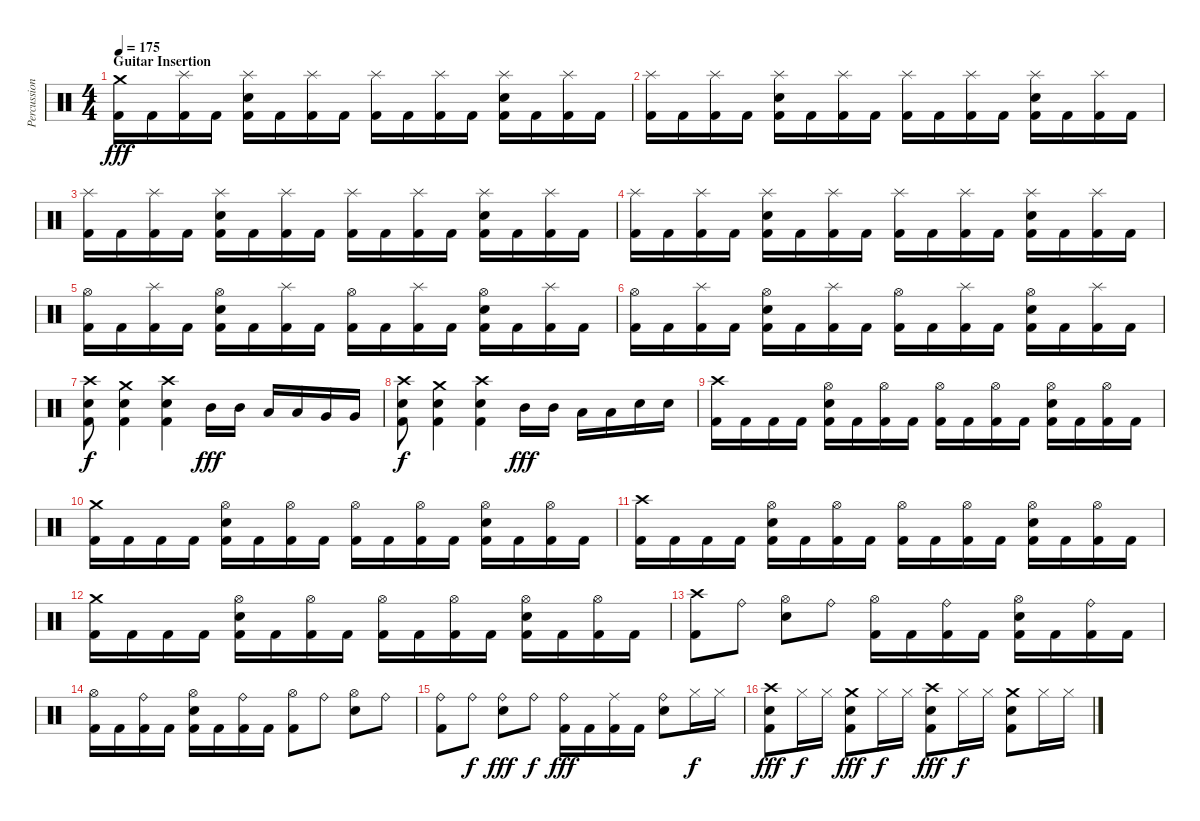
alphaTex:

\track ("Percussion" "Percussion") {instrument percussion}
\staff {score}
\articulation defaults
\ts (4 4)
\section ("" "Guitar Insertion")
\tempo 175
\clef neutral
\ks c
("Crash medium (hit)" "Kick (hit) 2").16{dy fff} "Kick (hit) 2".16 ("Splash (hit)" "Kick (hit) 2").16 "Kick (hit) 2".16 ("Splash (hit)" "Snare (hit) 2" "Kick (hit) 2").16 "Kick (hit) 2".16 ("Splash (hit)" "Kick (hit) 2").16 "Kick (hit) 2".16 ("Splash (hit)" "Kick (hit) 2").16 "Kick (hit) 2".16 ("Splash (hit)" "Kick (hit) 2").16 "Kick (hit) 2".16 ("Splash (hit)" "Snare (hit) 2" "Kick (hit) 2").16 "Kick (hit) 2".16 ("Splash (hit)" "Kick (hit) 2").16 "Kick (hit) 2".16 |
("Splash (hit)" "Kick (hit) 2").16 "Kick (hit) 2".16 ("Splash (hit)" "Kick (hit) 2").16 "Kick (hit) 2".16 ("Splash (hit)" "Snare (hit) 2" "Kick (hit) 2").16 "Kick (hit) 2".16 ("Splash (hit)" "Kick (hit) 2").16 "Kick (hit) 2".16 ("Splash (hit)" "Kick (hit) 2").16 "Kick (hit) 2".16 ("Splash (hit)" "Kick (hit) 2").16 "Kick (hit) 2".16 ("Splash (hit)" "Snare (hit) 2" "Kick (hit) 2").16 "Kick (hit) 2".16 ("Splash (hit)" "Kick (hit) 2").16 "Kick (hit) 2".16 |
("Splash (hit)" "Kick (hit) 2").16 "Kick (hit) 2".16 ("Splash (hit)" "Kick (hit) 2").16 "Kick (hit) 2".16 ("Splash (hit)" "Snare (hit) 2" "Kick (hit) 2").16 "Kick (hit) 2".16 ("Splash (hit)" "Kick (hit) 2").16 "Kick (hit) 2".16 ("Splash (hit)" "Kick (hit) 2").16 "Kick (hit) 2".16 ("Splash (hit)" "Kick (hit) 2").16 "Kick (hit) 2".16 ("Splash (hit)" "Snare (hit) 2" "Kick (hit) 2").16 "Kick (hit) 2".16 ("Splash (hit)" "Kick (hit) 2").16 "Kick (hit) 2".16 |
("Splash (hit)" "Kick (hit) 2").16 "Kick (hit) 2".16 ("Splash (hit)" "Kick (hit) 2").16 "Kick (hit) 2".16 ("Splash (hit)" "Snare (hit) 2" "Kick (hit) 2").16 "Kick (hit) 2".16 ("Splash (hit)" "Kick (hit) 2").16 "Kick (hit) 2".16 ("Splash (hit)" "Kick (hit) 2").16 "Kick (hit) 2".16 ("Splash (hit)" "Kick (hit) 2").16 "Kick (hit) 2".16 ("Splash (hit)" "Snare (hit) 2" "Kick (hit) 2").16 "Kick (hit) 2".16 ("Splash (hit)" "Kick (hit) 2").16 "Kick (hit) 2".16 |
("Hi-Hat (open)" "Kick (hit) 2").16 "Kick (hit) 2".16 ("Splash (hit)" "Kick (hit) 2").16 "Kick (hit) 2".16 ("Hi-Hat (open)" "Snare (hit) 2" "Kick (hit) 2").16 "Kick (hit) 2".16 ("Splash (hit)" "Kick (hit) 2").16 "Kick (hit) 2".16 ("Hi-Hat (open)" "Kick (hit) 2").16 "Kick (hit) 2".16 ("Splash (hit)" "Kick (hit) 2").16 "Kick (hit) 2".16 ("Hi-Hat (open)" "Snare (hit) 2" "Kick (hit) 2").16 "Kick (hit) 2".16 ("Splash (hit)" "Kick (hit) 2").16 "Kick (hit) 2".16 |
("Hi-Hat (open)" "Kick (hit) 2").16 "Kick (hit) 2".16 ("Splash (hit)" "Kick (hit) 2").16 "Kick (hit) 2".16 ("Hi-Hat (open)" "Snare (hit) 2" "Kick (hit) 2").16 "Kick (hit) 2".16 ("Splash (hit)" "Kick (hit) 2").16 "Kick (hit) 2".16 ("Hi-Hat (open)" "Kick (hit) 2").16 "Kick (hit) 2".16 ("Splash (hit)" "Kick (hit) 2").16 "Kick (hit) 2".16 ("Hi-Hat (open)" "Snare (hit) 2" "Kick (hit) 2").16 "Kick (hit) 2".16 ("Splash (hit)" "Kick (hit) 2").16 "Kick (hit) 2".16 |
("Crash high (hit)" "Snare (hit) 2" "Kick (hit) 2").8{dy f} ("Crash medium (hit)" "Snare (hit) 2" "Kick (hit) 2").4 ("Crash high (hit)" "Snare (hit) 2" "Kick (hit) 2").4 "Mid Tom (hit)".16{dy fff} "Mid Tom (hit)".16 "Low Tom (hit)".16 "Low Tom (hit)".16 "Very Low Tom (hit)".16 "Very Low Tom (hit)".16 |
("Crash high (hit)" "Snare (hit) 2" "Kick (hit) 2").8{dy f} ("Crash medium (hit)" "Snare (hit) 2" "Kick (hit) 2").4 ("Crash high (hit)" "Snare (hit) 2" "Kick (hit) 2").4 "Mid Tom (hit)".16{dy fff} "Mid Tom (hit)".16 "Low Tom (hit)".16 "Low Tom (hit)".16 "Snare (hit) 2".16 "Snare (hit) 2".16 |
("Crash high (hit)" "Kick (hit) 2").16 "Kick (hit) 2".16 "Kick (hit) 2".16 "Kick (hit) 2".16 ("Hi-Hat (open)" "Snare (hit) 2" "Kick (hit) 2").16 "Kick (hit) 2".16 ("Hi-Hat (open)" "Kick (hit) 2").16 "Kick (hit) 2".16 ("Hi-Hat (open)" "Kick (hit) 2").16 "Kick (hit) 2".16 ("Hi-Hat (open)" "Kick (hit) 2").16 "Kick (hit) 2".16 ("Hi-Hat (open)" "Snare (hit) 2" "Kick (hit) 2").16 "Kick (hit) 2".16 ("Hi-Hat (open)" "Kick (hit) 2").16 "Kick (hit) 2".16 |
("Crash medium (hit)" "Kick (hit) 2").16 "Kick (hit) 2".16 "Kick (hit) 2".16 "Kick (hit) 2".16 ("Hi-Hat (open)" "Snare (hit) 2" "Kick (hit) 2").16 "Kick (hit) 2".16 ("Hi-Hat (open)" "Kick (hit) 2").16 "Kick (hit) 2".16 ("Hi-Hat (open)" "Kick (hit) 2").16 "Kick (hit) 2".16 ("Hi-Hat (open)" "Kick (hit) 2").16 "Kick (hit) 2".16 ("Hi-Hat (open)" "Snare (hit) 2" "Kick (hit) 2").16 "Kick (hit) 2".16 ("Hi-Hat (open)" "Kick (hit) 2").16 "Kick (hit) 2".16 |
("Crash high (hit)" "Kick (hit) 2").16 "Kick (hit) 2".16 "Kick (hit) 2".16 "Kick (hit) 2".16 ("Hi-Hat (open)" "Snare (hit) 2" "Kick (hit) 2").16 "Kick (hit) 2".16 ("Hi-Hat (open)" "Kick (hit) 2").16 "Kick (hit) 2".16 ("Hi-Hat (open)" "Kick (hit) 2").16 "Kick (hit) 2".16 ("Hi-Hat (open)" "Kick (hit) 2").16 "Kick (hit) 2".16 ("Hi-Hat (open)" "Snare (hit) 2" "Kick (hit) 2").16 "Kick (hit) 2".16 ("Hi-Hat (open)" "Kick (hit) 2").16 "Kick (hit) 2".16 |
("Crash medium (hit)" "Kick (hit) 2").16 "Kick (hit) 2".16 "Kick (hit) 2".16 "Kick (hit) 2".16 ("Hi-Hat (open)" "Snare (hit) 2" "Kick (hit) 2").16 "Kick (hit) 2".16 ("Hi-Hat (open)" "Kick (hit) 2").16 "Kick (hit) 2".16 ("Hi-Hat (open)" "Kick (hit) 2").16 "Kick (hit) 2".16 ("Hi-Hat (open)" "Kick (hit) 2").16 "Kick (hit) 2".16 ("Hi-Hat (open)" "Snare (hit) 2" "Kick (hit) 2").16 "Kick (hit) 2".16 ("Hi-Hat (open)" "Kick (hit) 2").16 "Kick (hit) 2".16 |
("Crash high (hit)" "Kick (hit) 2").8 "Ride (bell)".8 ("Hi-Hat (open)" "Snare (hit) 2").8 "Ride (bell)".8 ("Hi-Hat (open)" "Kick (hit) 2").16 "Kick (hit) 2".16 ("Ride (bell)" "Kick (hit) 2").16 "Kick (hit) 2".16 ("Hi-Hat (open)" "Snare (hit) 2" "Kick (hit) 2").16 "Kick (hit) 2".16 ("Ride (bell)" "Kick (hit) 2").16 "Kick (hit) 2".16 |
("Hi-Hat (open)" "Kick (hit) 2").16 "Kick (hit) 2".16 ("Ride (bell)" "Kick (hit) 2").16 "Kick (hit) 2".16 ("Hi-Hat (open)" "Snare (hit) 2" "Kick (hit) 2").16 "Kick (hit) 2".16 ("Ride (bell)" "Kick (hit) 2").16 "Kick (hit) 2".16 ("Hi-Hat (open)" "Kick (hit) 2").8 "Ride (bell)".8 ("Hi-Hat (open)" "Snare (hit) 2").8 "Ride (bell)".8 |
("Ride (bell)" "Kick (hit) 2").8 "Ride (bell)".8{dy f} ("Ride (bell)" "Snare (hit) 2").8{dy fff} "Ride (bell)".8{dy f} ("Ride (bell)" "Kick (hit) 2").16{dy fff} "Kick (hit) 2".16 ("Ride (middle)" "Kick (hit) 2").16 "Kick (hit) 2".16 ("Ride (bell)" "Snare (hit) 2").8 "Hi-Hat (closed)".16{dy f} "Hi-Hat (closed)".16 |
("Crash high (hit)" "Snare (hit) 2" "Kick (hit) 2").8{dy fff} "Hi-Hat (closed)".16{dy f} "Hi-Hat (closed)".16 ("Crash medium (hit)" "Snare (hit) 2" "Kick (hit) 2").8{dy fff} "Hi-Hat (closed)".16{dy f} "Hi-Hat (closed)".16 ("Crash high (hit)" "Snare (hit) 2" "Kick (hit) 2").8{dy fff} "Hi-Hat (closed)".16{dy f} "Hi-Hat (closed)".16 ("Crash medium (hit)" "Snare (hit) 2" "Kick (hit) 2").8 "Hi-Hat (closed)".16 "Hi-Hat (closed)".16
